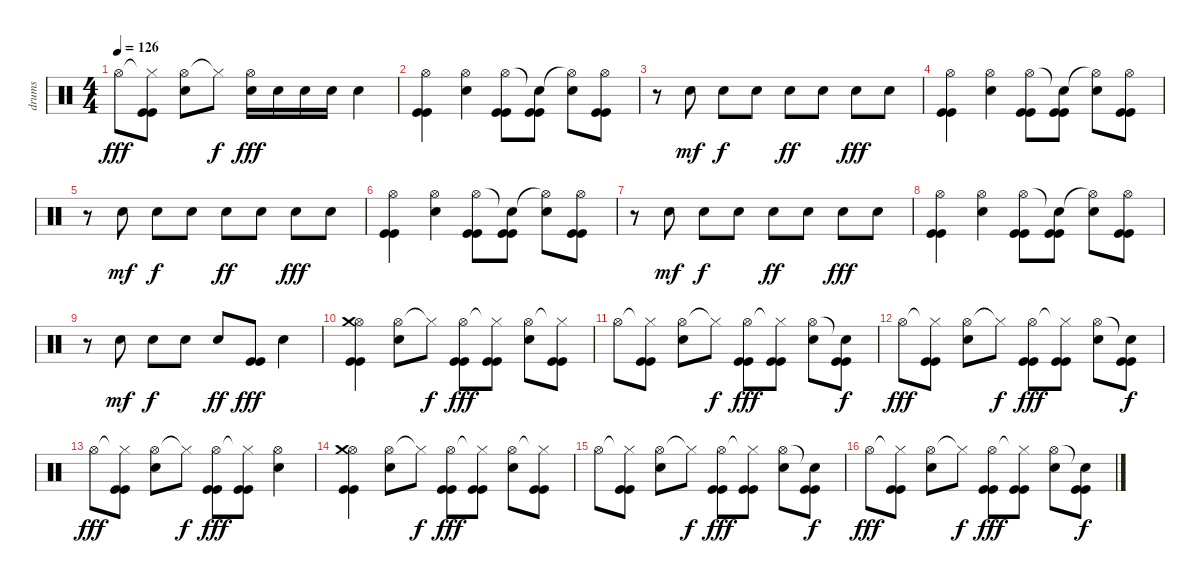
\track ("drums" "drums") {instrument percussion}
\staff {score}
\articulation defaults
\ts (4 4)
\tempo 126
\clef neutral
\ks c "Hi-Hat (open)".8{dy fff}
("Hi-Hat (closed)"{t} "Kick (hit)" "Kick (hit)").8 ("Hi-Hat (open)" "Electric Snare (hit)").8 "Hi-Hat (closed)"{t}.8{dy f} ("Hi-Hat (open)" "Electric Snare (hit)").16{dy fff} "Electric Snare (hit)".16 "Electric Snare (hit)".16 "Electric Snare (hit)".16 "Electric Snare (hit)".4 |
("Hi-Hat (open)" "Kick (hit)" "Kick (hit)").4 ("Hi-Hat (open)" "Electric Snare (hit)").4 ("Hi-Hat (open)" "Kick (hit)" "Kick (hit)").8 ("Snare (hit)"{t} "Kick (hit)" "Kick (hit)").8 ("Hi-Hat (open)"{t} "Electric Snare (hit)").8 ("Hi-Hat (open)" "Kick (hit)" "Kick (hit)").8 |
r.8 "Electric Snare (hit)".8{dy mf} "Electric Snare (hit)".8{dy f} "Electric Snare (hit)".8 "Electric Snare (hit)".8{dy ff} "Electric Snare (hit)".8 "Electric Snare (hit)".8{dy fff} "Electric Snare (hit)".8 |
("Hi-Hat (open)" "Kick (hit)" "Kick (hit)").4 ("Hi-Hat (open)" "Electric Snare (hit)").4 ("Hi-Hat (open)" "Kick (hit)" "Kick (hit)").8 ("Snare (hit)"{t} "Kick (hit)" "Kick (hit)").8 ("Hi-Hat (open)"{t} "Electric Snare (hit)").8 ("Hi-Hat (open)" "Kick (hit)" "Kick (hit)").8 |
r.8 "Electric Snare (hit)".8{dy mf} "Electric Snare (hit)".8{dy f} "Electric Snare (hit)".8 "Electric Snare (hit)".8{dy ff} "Electric Snare (hit)".8 "Electric Snare (hit)".8{dy fff} "Electric Snare (hit)".8 |
("Hi-Hat (open)" "Kick (hit)" "Kick (hit)").4 ("Hi-Hat (open)" "Electric Snare (hit)").4 ("Hi-Hat (open)" "Kick (hit)" "Kick (hit)").8 ("Snare (hit)"{t} "Kick (hit)" "Kick (hit)").8 ("Hi-Hat (open)"{t} "Electric Snare (hit)").8 ("Hi-Hat (open)" "Kick (hit)" "Kick (hit)").8 |
r.8 "Electric Snare (hit)".8{dy mf} "Electric Snare (hit)".8{dy f} "Electric Snare (hit)".8 "Electric Snare (hit)".8{dy ff} "Electric Snare (hit)".8 "Electric Snare (hit)".8{dy fff} "Electric Snare (hit)".8 |
("Hi-Hat (open)" "Kick (hit)" "Kick (hit)").4 ("Hi-Hat (open)" "Electric Snare (hit)").4 ("Hi-Hat (open)" "Kick (hit)" "Kick (hit)").8 ("Snare (hit)"{t} "Kick (hit)" "Kick (hit)").8 ("Hi-Hat (open)"{t} "Electric Snare (hit)").8 ("Hi-Hat (open)" "Kick (hit)" "Kick (hit)").8 |
r.8 "Electric Snare (hit)".8{dy mf} "Electric Snare (hit)".8{dy f} "Electric Snare (hit)".8 "Electric Snare (hit)".8{dy ff} ("Kick (hit)" "Kick (hit)").8{dy fff} "Electric Snare (hit)".4 |
("Hi-Hat (open)" "Crash medium (hit)" "Kick (hit)" "Kick (hit)").4 ("Hi-Hat (open)" "Electric Snare (hit)").8 "Hi-Hat (closed)"{t}.8{dy f} ("Hi-Hat (open)" "Kick (hit)" "Kick (hit)").8{dy fff} ("Hi-Hat (closed)"{t} "Kick (hit)" "Kick (hit)").8 ("Hi-Hat (open)" "Electric Snare (hit)").8 ("Hi-Hat (closed)"{t} "Kick (hit)" "Kick (hit)").8 |
"Hi-Hat (open)".8 ("Hi-Hat (closed)"{t} "Kick (hit)" "Kick (hit)").8 ("Hi-Hat (open)" "Electric Snare (hit)").8 "Hi-Hat (closed)"{t}.8{dy f} ("Hi-Hat (open)" "Kick (hit)" "Kick (hit)").8{dy fff} ("Hi-Hat (closed)"{t} "Kick (hit)" "Kick (hit)").8 ("Hi-Hat (open)" "Electric Snare (hit)").8 ("Snare (hit)"{t} "Kick (hit)" "Kick (hit)").8{dy f} |
"Hi-Hat (open)".8{dy fff} ("Hi-Hat (closed)"{t} "Kick (hit)" "Kick (hit)").8 ("Hi-Hat (open)" "Electric Snare (hit)").8 "Hi-Hat (closed)"{t}.8{dy f} ("Hi-Hat (open)" "Kick (hit)" "Kick (hit)").8{dy fff} ("Hi-Hat (closed)"{t} "Kick (hit)" "Kick (hit)").8 ("Hi-Hat (open)" "Electric Snare (hit)").8 ("Snare (hit)"{t} "Kick (hit)" "Kick (hit)").8{dy f} |
"Hi-Hat (open)".8{dy fff} ("Hi-Hat (closed)"{t} "Kick (hit)" "Kick (hit)").8 ("Hi-Hat (open)" "Electric Snare (hit)").8 "Hi-Hat (closed)"{t}.8{dy f} ("Hi-Hat (open)" "Kick (hit)" "Kick (hit)").8{dy fff} ("Hi-Hat (closed)"{t} "Kick (hit)" "Kick (hit)").8 ("Hi-Hat (open)" "Electric Snare (hit)").4 |
("Hi-Hat (open)" "Crash medium (hit)" "Kick (hit)" "Kick (hit)").4 ("Hi-Hat (open)" "Electric Snare (hit)").8 "Hi-Hat (closed)"{t}.8{dy f} ("Hi-Hat (open)" "Kick (hit)" "Kick (hit)").8{dy fff} ("Hi-Hat (closed)"{t} "Kick (hit)" "Kick (hit)").8 ("Hi-Hat (open)" "Electric Snare (hit)").8 ("Hi-Hat (closed)"{t} "Kick (hit)" "Kick (hit)").8 |
"Hi-Hat (open)".8 ("Hi-Hat (closed)"{t} "Kick (hit)" "Kick (hit)").8 ("Hi-Hat (open)" "Electric Snare (hit)").8 "Hi-Hat (closed)"{t}.8{dy f} ("Hi-Hat (open)" "Kick (hit)" "Kick (hit)").8{dy fff} ("Hi-Hat (closed)"{t} "Kick (hit)" "Kick (hit)").8 ("Hi-Hat (open)" "Electric Snare (hit)").8 ("Snare (hit)"{t} "Kick (hit)" "Kick (hit)").8{dy f} |
"Hi-Hat (open)".8{dy fff} ("Hi-Hat (closed)"{t} "Kick (hit)" "Kick (hit)").8 ("Hi-Hat (open)" "Electric Snare (hit)").8 "Hi-Hat (closed)"{t}.8{dy f} ("Hi-Hat (open)" "Kick (hit)" "Kick (hit)").8{dy fff} ("Hi-Hat (closed)"{t} "Kick (hit)" "Kick (hit)").8 ("Hi-Hat (open)" "Electric Snare (hit)").8 ("Snare (hit)"{t} "Kick (hit)" "Kick (hit)").8{dy f}
